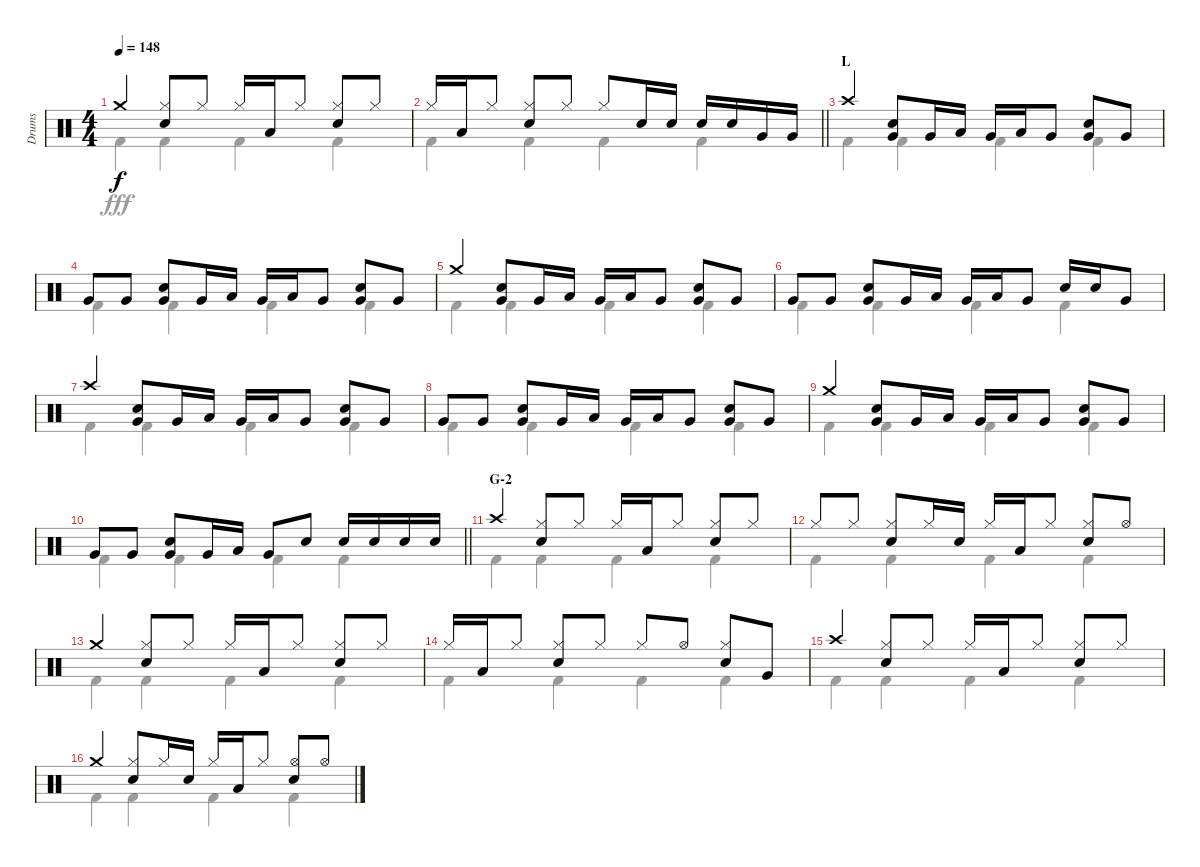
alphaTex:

\track ("Drums" "Drums") {instrument percussion}
\staff {score}
\articulation defaults
\voice
\ts (4 4)
\tempo 148
\clef neutral
\ks c "Crash medium (hit)".4{dy f}
("Hi-Hat (closed)" "Snare (hit) 2").8 "Hi-Hat (closed)".8 "Hi-Hat (closed)".16 "Low Tom (hit)".16 "Hi-Hat (closed)".8 ("Hi-Hat (closed)" "Snare (hit) 2").8 "Hi-Hat (closed)".8 |
\barLineRight lightlight "Hi-Hat (closed)".16 "Low Tom (hit)".16 "Hi-Hat (closed)".8
("Hi-Hat (closed)" "Snare (hit) 2").8 "Hi-Hat (closed)".8 "Hi-Hat (closed)".8 "Snare (hit) 2".16 "Snare (hit) 2".16 "Snare (hit) 2".16 "Snare (hit) 2".16 "Very Low Tom (hit)".16 "Very Low Tom (hit)".16 |
\section ("" "L")
"Crash high (hit)".4 ("Snare (hit) 2" "Very Low Tom (hit)").8 "Very Low Tom (hit)".16 "Low Tom (hit)".16 "Very Low Tom (hit)".16 "Low Tom (hit)".16 "Very Low Tom (hit)".8 ("Snare (hit) 2" "Very Low Tom (hit)").8 "Very Low Tom (hit)".8 |
"Very Low Tom (hit)".8 "Very Low Tom (hit)".8 ("Snare (hit) 2" "Very Low Tom (hit)").8 "Very Low Tom (hit)".16 "Low Tom (hit)".16 "Very Low Tom (hit)".16 "Low Tom (hit)".16 "Very Low Tom (hit)".8 ("Snare (hit) 2" "Very Low Tom (hit)").8 "Very Low Tom (hit)".8 |
"Crash medium (hit)".4 ("Snare (hit) 2" "Very Low Tom (hit)").8 "Very Low Tom (hit)".16 "Low Tom (hit)".16 "Very Low Tom (hit)".16 "Low Tom (hit)".16 "Very Low Tom (hit)".8 ("Snare (hit) 2" "Very Low Tom (hit)").8 "Very Low Tom (hit)".8 |
"Very Low Tom (hit)".8 "Very Low Tom (hit)".8 ("Snare (hit) 2" "Very Low Tom (hit)").8 "Very Low Tom (hit)".16 "Low Tom (hit)".16 "Very Low Tom (hit)".16 "Low Tom (hit)".16 "Very Low Tom (hit)".8 "Snare (hit) 2".16 "Snare (hit) 2".16 "Very Low Tom (hit)".8 |
"Crash high (hit)".4 ("Snare (hit) 2" "Very Low Tom (hit)").8 "Very Low Tom (hit)".16 "Low Tom (hit)".16 "Very Low Tom (hit)".16 "Low Tom (hit)".16 "Very Low Tom (hit)".8 ("Snare (hit) 2" "Very Low Tom (hit)").8 "Very Low Tom (hit)".8 |
"Very Low Tom (hit)".8 "Very Low Tom (hit)".8 ("Snare (hit) 2" "Very Low Tom (hit)").8 "Very Low Tom (hit)".16 "Low Tom (hit)".16 "Very Low Tom (hit)".16 "Low Tom (hit)".16 "Very Low Tom (hit)".8 ("Snare (hit) 2" "Very Low Tom (hit)").8 "Very Low Tom (hit)".8 |
"Crash medium (hit)".4 ("Snare (hit) 2" "Very Low Tom (hit)").8 "Very Low Tom (hit)".16 "Low Tom (hit)".16 "Very Low Tom (hit)".16 "Low Tom (hit)".16 "Very Low Tom (hit)".8 ("Snare (hit) 2" "Very Low Tom (hit)").8 "Very Low Tom (hit)".8 |
\barLineRight lightlight "Very Low Tom (hit)".8 "Very Low Tom (hit)".8
("Snare (hit) 2" "Very Low Tom (hit)").8 "Very Low Tom (hit)".16 "Low Tom (hit)".16 "Very Low Tom (hit)".8 "Snare (hit) 2".8 "Snare (hit) 2".16 "Snare (hit) 2".16 "Snare (hit) 2".16 "Snare (hit) 2".16 |
\section ("" "G-2")
"Crash high (hit)".4 ("Hi-Hat (closed)" "Snare (hit) 2").8 "Hi-Hat (closed)".8 "Hi-Hat (closed)".16 "Low Tom (hit)".16 "Hi-Hat (closed)".8 ("Hi-Hat (closed)" "Snare (hit) 2").8 "Hi-Hat (closed)".8 |
"Hi-Hat (closed)".8 "Hi-Hat (closed)".8 ("Hi-Hat (closed)" "Snare (hit) 2").8 "Hi-Hat (closed)".16 "Snare (hit) 2".16 "Hi-Hat (closed)".16 "Low Tom (hit)".16 "Hi-Hat (closed)".8 ("Hi-Hat (closed)" "Snare (hit) 2").8 "Hi-Hat (open)".8 |
"Crash medium (hit)".4 ("Hi-Hat (closed)" "Snare (hit) 2").8 "Hi-Hat (closed)".8 "Hi-Hat (closed)".16 "Low Tom (hit)".16 "Hi-Hat (closed)".8 ("Hi-Hat (closed)" "Snare (hit) 2").8 "Hi-Hat (closed)".8 |
"Hi-Hat (closed)".16 "Low Tom (hit)".16 "Hi-Hat (closed)".8 ("Hi-Hat (closed)" "Snare (hit) 2").8 "Hi-Hat (closed)".8 "Hi-Hat (closed)".8 "Hi-Hat (open)".8 ("Hi-Hat (closed)" "Snare (hit) 2").8 "Very Low Tom (hit)".8 |
"Crash high (hit)".4 ("Hi-Hat (closed)" "Snare (hit) 2").8 "Hi-Hat (closed)".8 "Hi-Hat (closed)".16 "Low Tom (hit)".16 "Hi-Hat (closed)".8 ("Hi-Hat (closed)" "Snare (hit) 2").8 "Hi-Hat (closed)".8 |
"Crash medium (hit)".4 ("Hi-Hat (closed)" "Snare (hit) 2").8 "Hi-Hat (closed)".16 "Snare (hit) 2".16 "Hi-Hat (closed)".16 "Low Tom (hit)".16 "Hi-Hat (closed)".8 ("Hi-Hat (open)" "Snare (hit) 2").8 "Hi-Hat (open)".8
\voice
\clef neutral
\ottava regular
\simile none
\ks c "Kick (hit) 2".4{dy fff} "Kick (hit) 2".4 "Kick (hit) 2".4 "Kick (hit) 2".4
|
\barLineRight lightlight "Kick (hit) 2".4 "Kick (hit) 2".4 "Kick (hit) 2".4 "Kick (hit) 2".4
|
"Kick (hit) 2".4 "Kick (hit) 2".4 "Kick (hit) 2".4 "Kick (hit) 2".4 |
"Kick (hit) 2".4 "Kick (hit) 2".4 "Kick (hit) 2".4 "Kick (hit) 2".4 |
"Kick (hit) 2".4 "Kick (hit) 2".4 "Kick (hit) 2".4 "Kick (hit) 2".4 |
"Kick (hit) 2".4 "Kick (hit) 2".4 "Kick (hit) 2".4 "Kick (hit) 2".4 |
"Kick (hit) 2".4 "Kick (hit) 2".4 "Kick (hit) 2".4 "Kick (hit) 2".4 |
"Kick (hit) 2".4 "Kick (hit) 2".4 "Kick (hit) 2".4 "Kick (hit) 2".4 |
"Kick (hit) 2".4 "Kick (hit) 2".4 "Kick (hit) 2".4 "Kick (hit) 2".4 |
\barLineRight lightlight "Kick (hit) 2".4 "Kick (hit) 2".4 "Kick (hit) 2".4 "Kick (hit) 2".4
|
"Kick (hit) 2".4 "Kick (hit) 2".4 "Kick (hit) 2".4 "Kick (hit) 2".4 |
"Kick (hit) 2".4 "Kick (hit) 2".4 "Kick (hit) 2".4 "Kick (hit) 2".4 |
"Kick (hit) 2".4 "Kick (hit) 2".4 "Kick (hit) 2".4 "Kick (hit) 2".4 |
"Kick (hit) 2".4 "Kick (hit) 2".4 "Kick (hit) 2".4 "Kick (hit) 2".4 |
"Kick (hit) 2".4 "Kick (hit) 2".4 "Kick (hit) 2".4 "Kick (hit) 2".4 |
"Kick (hit) 2".4 "Kick (hit) 2".4 "Kick (hit) 2".4 "Kick (hit) 2".4
